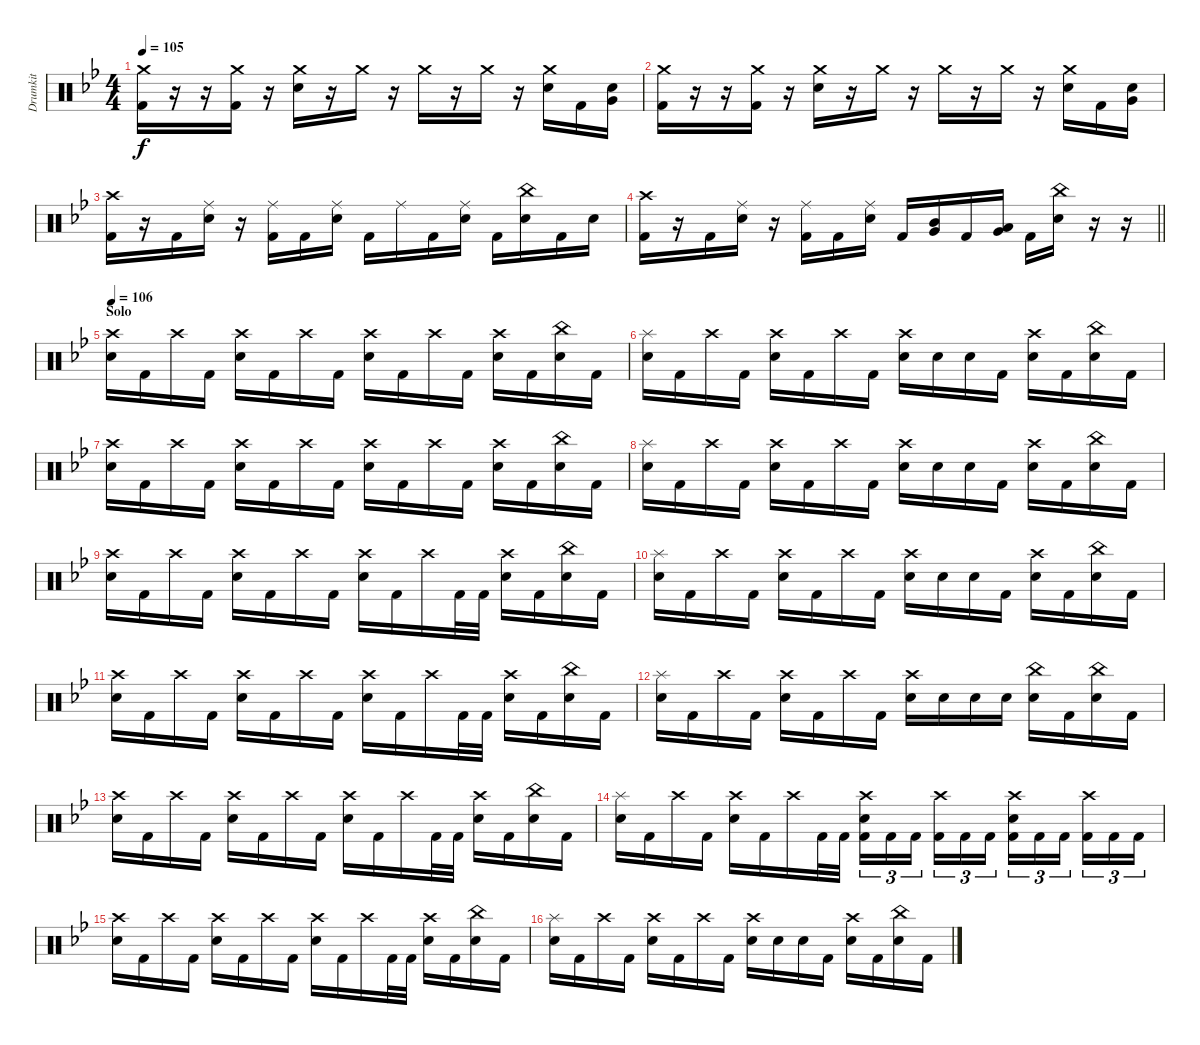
\track ("Drumkit" "Drumkit") {instrument percussion}
\staff {score}
\articulation defaults
\ts (4 4)
\tempo 105
\clef neutral
\ks bb
("Crash medium (hit)" "Kick (hit) 2").16{dy f} r.16 r.16 ("Crash medium (hit)" "Kick (hit) 2").16 r.16 ("Crash medium (hit)" "Snare (hit) 2").16 r.16 "Crash medium (hit)".16 r.16 "Crash medium (hit)".16 r.16 "Crash medium (hit)".16 r.16 ("Crash medium (hit)" "Snare (hit) 2").16 "Kick (hit) 2".16 ("Snare (hit) 2" "Very Low Tom (hit)").16 |
("Crash medium (hit)" "Kick (hit) 2").16 r.16 r.16 ("Crash medium (hit)" "Kick (hit) 2").16 r.16 ("Crash medium (hit)" "Snare (hit) 2").16 r.16 "Crash medium (hit)".16 r.16 "Crash medium (hit)".16 r.16 "Crash medium (hit)".16 r.16 ("Crash medium (hit)" "Snare (hit) 2").16 "Kick (hit) 2".16 ("Snare (hit) 2" "Very Low Tom (hit)").16 |
("Crash high (hit)" "Kick (hit) 2").16 r.16 "Kick (hit) 2".16 ("Ride (middle)" "Snare (hit) 2").16 r.16 ("Ride (middle)" "Kick (hit) 2").16 "Kick (hit) 2".16 ("Ride (middle)" "Snare (hit) 2").16 "Kick (hit) 2".16 "Ride (middle)".16 "Kick (hit) 2".16 ("Ride (middle)" "Snare (hit) 2").16 "Kick (hit) 2".16 ("China (hit)" "Snare (hit) 2").16 "Kick (hit) 2".16 "Snare (hit) 2".16 |
\barLineRight lightlight
("Crash high (hit)" "Kick (hit) 2").16 r.16 "Kick (hit) 2".16 ("Ride (middle)" "Snare (hit) 2").16 r.16 ("Ride (middle)" "Kick (hit) 2").16 "Kick (hit) 2".16 ("Ride (middle)" "Snare (hit) 2").16 "Kick (hit) 2".16 ("Mid Tom (hit)" "Very Low Tom (hit)").16 "Kick (hit) 2".16 ("Low Tom (hit)" "Very Low Tom (hit)").16 "Kick (hit) 2".16 ("China (hit)" "Snare (hit) 2").16 r.16 r.16 |
\section ("" "Solo")
\tempo 106
("Crash high (hit)" "Snare (hit) 2").16 "Kick (hit) 2".16 "Crash high (hit)".16 "Kick (hit) 2".16 ("Crash high (hit)" "Snare (hit) 2").16 "Kick (hit) 2".16 "Crash high (hit)".16 "Kick (hit) 2".16 ("Crash high (hit)" "Snare (hit) 2").16 "Kick (hit) 2".16 "Crash high (hit)".16 "Kick (hit) 2".16 ("Crash high (hit)" "Snare (hit) 2").16 "Kick (hit) 2".16 ("China (hit)" "Snare (hit) 2").16 "Kick (hit) 2".16 |
("Splash (hit)" "Snare (hit) 2").16 "Kick (hit) 2".16 "Crash high (hit)".16 "Kick (hit) 2".16 ("Crash high (hit)" "Snare (hit) 2").16 "Kick (hit) 2".16 "Crash high (hit)".16 "Kick (hit) 2".16 ("Crash high (hit)" "Snare (hit) 2").16 "Snare (hit) 2".16 "Snare (hit) 2".16 "Kick (hit) 2".16 ("Crash high (hit)" "Snare (hit) 2").16 "Kick (hit) 2".16 ("China (hit)" "Snare (hit) 2").16 "Kick (hit) 2".16 |
("Crash high (hit)" "Snare (hit) 2").16 "Kick (hit) 2".16 "Crash high (hit)".16 "Kick (hit) 2".16 ("Crash high (hit)" "Snare (hit) 2").16 "Kick (hit) 2".16 "Crash high (hit)".16 "Kick (hit) 2".16 ("Crash high (hit)" "Snare (hit) 2").16 "Kick (hit) 2".16 "Crash high (hit)".16 "Kick (hit) 2".16 ("Crash high (hit)" "Snare (hit) 2").16 "Kick (hit) 2".16 ("China (hit)" "Snare (hit) 2").16 "Kick (hit) 2".16 |
("Splash (hit)" "Snare (hit) 2").16 "Kick (hit) 2".16 "Crash high (hit)".16 "Kick (hit) 2".16 ("Crash high (hit)" "Snare (hit) 2").16 "Kick (hit) 2".16 "Crash high (hit)".16 "Kick (hit) 2".16 ("Crash high (hit)" "Snare (hit) 2").16 "Snare (hit) 2".16 "Snare (hit) 2".16 "Kick (hit) 2".16 ("Crash high (hit)" "Snare (hit) 2").16 "Kick (hit) 2".16 ("China (hit)" "Snare (hit) 2").16 "Kick (hit) 2".16 |
("Crash high (hit)" "Snare (hit) 2").16 "Kick (hit) 2".16 "Crash high (hit)".16 "Kick (hit) 2".16 ("Crash high (hit)" "Snare (hit) 2").16 "Kick (hit) 2".16 "Crash high (hit)".16 "Kick (hit) 2".16 ("Crash high (hit)" "Snare (hit) 2").16 "Kick (hit) 2".16 "Crash high (hit)".16 "Kick (hit) 2".32 "Kick (hit) 2".32 ("Crash high (hit)" "Snare (hit) 2").16 "Kick (hit) 2".16 ("China (hit)" "Snare (hit) 2").16 "Kick (hit) 2".16 |
("Splash (hit)" "Snare (hit) 2").16 "Kick (hit) 2".16 "Crash high (hit)".16 "Kick (hit) 2".16 ("Crash high (hit)" "Snare (hit) 2").16 "Kick (hit) 2".16 "Crash high (hit)".16 "Kick (hit) 2".16 ("Crash high (hit)" "Snare (hit) 2").16 "Snare (hit) 2".16 "Snare (hit) 2".16 "Kick (hit) 2".16 ("Crash high (hit)" "Snare (hit) 2").16 "Kick (hit) 2".16 ("China (hit)" "Snare (hit) 2").16 "Kick (hit) 2".16 |
("Crash high (hit)" "Snare (hit) 2").16 "Kick (hit) 2".16 "Crash high (hit)".16 "Kick (hit) 2".16 ("Crash high (hit)" "Snare (hit) 2").16 "Kick (hit) 2".16 "Crash high (hit)".16 "Kick (hit) 2".16 ("Crash high (hit)" "Snare (hit) 2").16 "Kick (hit) 2".16 "Crash high (hit)".16 "Kick (hit) 2".32 "Kick (hit) 2".32 ("Crash high (hit)" "Snare (hit) 2").16 "Kick (hit) 2".16 ("China (hit)" "Snare (hit) 2").16 "Kick (hit) 2".16 |
("Splash (hit)" "Snare (hit) 2").16 "Kick (hit) 2".16 "Crash high (hit)".16 "Kick (hit) 2".16 ("Crash high (hit)" "Snare (hit) 2").16 "Kick (hit) 2".16 "Crash high (hit)".16 "Kick (hit) 2".16 ("Crash high (hit)" "Snare (hit) 2").16 "Snare (hit) 2".16 "Snare (hit) 2".16 "Snare (hit) 2".16 ("China (hit)" "Snare (hit) 2").16 "Kick (hit) 2".16 ("China (hit)" "Snare (hit) 2").16 "Kick (hit) 2".16 |
("Crash high (hit)" "Snare (hit) 2").16 "Kick (hit) 2".16 "Crash high (hit)".16 "Kick (hit) 2".16 ("Crash high (hit)" "Snare (hit) 2").16 "Kick (hit) 2".16 "Crash high (hit)".16 "Kick (hit) 2".16 ("Crash high (hit)" "Snare (hit) 2").16 "Kick (hit) 2".16 "Crash high (hit)".16 "Kick (hit) 2".32 "Kick (hit) 2".32 ("Crash high (hit)" "Snare (hit) 2").16 "Kick (hit) 2".16 ("China (hit)" "Snare (hit) 2").16 "Kick (hit) 2".16 |
("Splash (hit)" "Snare (hit) 2").16 "Kick (hit) 2".16 "Crash high (hit)".16 "Kick (hit) 2".16 ("Crash high (hit)" "Snare (hit) 2").16 "Kick (hit) 2".16 "Crash high (hit)".16 "Kick (hit) 2".32 "Kick (hit) 2".32 ("Crash high (hit)" "Snare (hit) 2" "Kick (hit) 2").16{tu (3 2)} "Kick (hit) 2".16{tu (3 2)} "Kick (hit) 2".16{tu (3 2)} ("Crash high (hit)" "Kick (hit) 2").16{tu (3 2)} "Kick (hit) 2".16{tu (3 2)} "Kick (hit) 2".16{tu (3 2)} ("Crash high (hit)" "Snare (hit) 2" "Kick (hit) 2").16{tu (3 2)} "Kick (hit) 2".16{tu (3 2)} "Kick (hit) 2".16{tu (3 2)} ("Crash high (hit)" "Kick (hit) 2").16{tu (3 2)} "Kick (hit) 2".16{tu (3 2)} "Kick (hit) 2".16{tu (3 2)} |
("Crash high (hit)" "Snare (hit) 2").16 "Kick (hit) 2".16 "Crash high (hit)".16 "Kick (hit) 2".16 ("Crash high (hit)" "Snare (hit) 2").16 "Kick (hit) 2".16 "Crash high (hit)".16 "Kick (hit) 2".16 ("Crash high (hit)" "Snare (hit) 2").16 "Kick (hit) 2".16 "Crash high (hit)".16 "Kick (hit) 2".32 "Kick (hit) 2".32 ("Crash high (hit)" "Snare (hit) 2").16 "Kick (hit) 2".16 ("China (hit)" "Snare (hit) 2").16 "Kick (hit) 2".16 |
("Splash (hit)" "Snare (hit) 2").16 "Kick (hit) 2".16 "Crash high (hit)".16 "Kick (hit) 2".16 ("Crash high (hit)" "Snare (hit) 2").16 "Kick (hit) 2".16 "Crash high (hit)".16 "Kick (hit) 2".16 ("Crash high (hit)" "Snare (hit) 2").16 "Snare (hit) 2".16 "Snare (hit) 2".16 "Kick (hit) 2".16 ("Crash high (hit)" "Snare (hit) 2").16 "Kick (hit) 2".16 ("China (hit)" "Snare (hit) 2").16 "Kick (hit) 2".16
